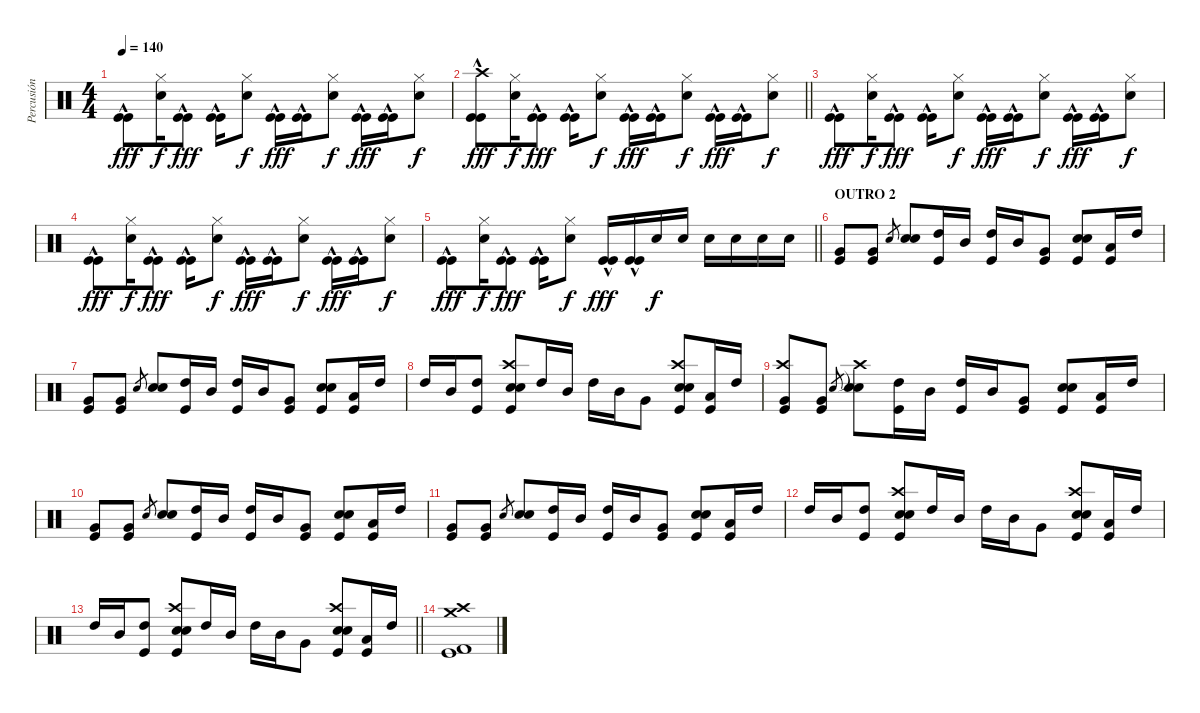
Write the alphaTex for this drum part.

\track ("Percusión" "Percusión") {instrument percussion}
\staff {score}
\articulation defaults
\ts (4 4)
\tempo 140
\clef neutral
\ks c
("Kick (hit)"{hac} "Kick (hit)").8{dy fff} ("Hi-Hat (closed)" "Snare (hit) 2").16{dy f} ("Kick (hit)"{hac} "Kick (hit)").8{dy fff} ("Kick (hit)" "Kick (hit)"{hac}).16 ("Hi-Hat (closed)" "Snare (hit) 2").8{dy f} ("Kick (hit)"{hac} "Kick (hit)").16{dy fff} ("Kick (hit)"{hac} "Kick (hit)").16 ("Hi-Hat (closed)" "Snare (hit) 2").8{dy f} ("Kick (hit)"{hac} "Kick (hit)").16{dy fff} ("Kick (hit)"{hac} "Kick (hit)").16 ("Hi-Hat (closed)" "Snare (hit) 2").8{dy f} |
\barLineRight lightlight
("Crash high (hit)" "Kick (hit)"{hac} "Kick (hit)").8{dy fff} ("Hi-Hat (closed)" "Snare (hit) 2").16{dy f} ("Kick (hit)"{hac} "Kick (hit)").8{dy fff} ("Kick (hit)" "Kick (hit)"{hac}).16 ("Hi-Hat (closed)" "Snare (hit) 2").8{dy f} ("Kick (hit)"{hac} "Kick (hit)").16{dy fff} ("Kick (hit)"{hac} "Kick (hit)").16 ("Hi-Hat (closed)" "Snare (hit) 2").8{dy f} ("Kick (hit)"{hac} "Kick (hit)").16{dy fff} ("Kick (hit)"{hac} "Kick (hit)").16 ("Hi-Hat (closed)" "Snare (hit) 2").8{dy f} |
("Kick (hit)"{hac} "Kick (hit)").8{dy fff} ("Hi-Hat (closed)" "Snare (hit) 2").16{dy f} ("Kick (hit)"{hac} "Kick (hit)").8{dy fff} ("Kick (hit)" "Kick (hit)"{hac}).16 ("Hi-Hat (closed)" "Snare (hit) 2").8{dy f} ("Kick (hit)"{hac} "Kick (hit)").16{dy fff} ("Kick (hit)"{hac} "Kick (hit)").16 ("Hi-Hat (closed)" "Snare (hit) 2").8{dy f} ("Kick (hit)"{hac} "Kick (hit)").16{dy fff} ("Kick (hit)"{hac} "Kick (hit)").16 ("Hi-Hat (closed)" "Snare (hit) 2").8{dy f} |
("Kick (hit)"{hac} "Kick (hit)").8{dy fff} ("Hi-Hat (closed)" "Snare (hit) 2").16{dy f} ("Kick (hit)"{hac} "Kick (hit)").8{dy fff} ("Kick (hit)" "Kick (hit)"{hac}).16 ("Hi-Hat (closed)" "Snare (hit) 2").8{dy f} ("Kick (hit)"{hac} "Kick (hit)").16{dy fff} ("Kick (hit)"{hac} "Kick (hit)").16 ("Hi-Hat (closed)" "Snare (hit) 2").8{dy f} ("Kick (hit)"{hac} "Kick (hit)").16{dy fff} ("Kick (hit)"{hac} "Kick (hit)").16 ("Hi-Hat (closed)" "Snare (hit) 2").8{dy f} |
\barLineRight lightlight
("Kick (hit)"{hac} "Kick (hit)").8{dy fff} ("Hi-Hat (closed)" "Snare (hit) 2").16{dy f} ("Kick (hit)"{hac} "Kick (hit)").8{dy fff} ("Kick (hit)" "Kick (hit)"{hac}).16 ("Hi-Hat (closed)" "Snare (hit) 2").8{dy f} ("Kick (hit)"{hac} "Kick (hit)").16{dy fff} ("Kick (hit)"{hac} "Kick (hit)").16 "Snare (hit) 2".16{dy f} "Snare (hit) 2".16 "Snare (hit) 2".16 "Snare (hit) 2".16 "Snare (hit) 2".16 "Snare (hit) 2".16 |
\section ("" "OUTRO 2")
("Very Low Tom (hit)" "Kick (hit)").8 ("Very Low Tom (hit)" "Kick (hit)").8 "Electric Snare (hit)".8{gr} ("Electric Snare (hit)" "Electric Snare (hit)").8 ("Kick (hit)" "High Tom (hit)").16 "Mid Tom (hit)".16 ("Kick (hit)" "High Tom (hit)").16 "Mid Tom (hit)".16 ("Very Low Tom (hit)" "Kick (hit)").8 ("Kick (hit)" "Electric Snare (hit)" "Electric Snare (hit)").8 ("Low Floor Tom (hit)" "Kick (hit)").16 "High Tom (hit)".16 |
("Very Low Tom (hit)" "Kick (hit)").8 ("Very Low Tom (hit)" "Kick (hit)").8 "Electric Snare (hit)".8{gr} ("Electric Snare (hit)" "Electric Snare (hit)").8 ("Kick (hit)" "High Tom (hit)").16 "Mid Tom (hit)".16 ("Kick (hit)" "High Tom (hit)").16 "Mid Tom (hit)".16 ("Very Low Tom (hit)" "Kick (hit)").8 ("Kick (hit)" "Electric Snare (hit)" "Electric Snare (hit)").8 ("Low Floor Tom (hit)" "Kick (hit)").16 "High Tom (hit)".16 |
"High Tom (hit)".16 "Mid Tom (hit)".16 ("High Tom (hit)" "Kick (hit)").8 ("Crash high (hit)" "Electric Snare (hit)" "Kick (hit)" "Electric Snare (hit)").8 "High Tom (hit)".16 "Mid Tom (hit)".16 "High Tom (hit)".16 "Mid Tom (hit)".16 "Very Low Tom (hit)".8 ("Crash high (hit)" "Electric Snare (hit)" "Kick (hit)" "Electric Snare (hit)").8 ("Low Floor Tom (hit)" "Kick (hit)").16 "High Tom (hit)".16 |
("Crash high (hit)" "Kick (hit)" "Very Low Tom (hit)").8 ("Very Low Tom (hit)" "Kick (hit)").8 "Electric Snare (hit)".8{gr} ("Crash high (hit)"{t} "Electric Snare (hit)" "Electric Snare (hit)").8 ("Kick (hit)" "High Tom (hit)").16 "Mid Tom (hit)".16 ("Kick (hit)" "High Tom (hit)").16 "Mid Tom (hit)".16 ("Very Low Tom (hit)" "Kick (hit)").8 ("Kick (hit)" "Electric Snare (hit)" "Electric Snare (hit)").8 ("Low Floor Tom (hit)" "Kick (hit)").16 "High Tom (hit)".16 |
("Very Low Tom (hit)" "Kick (hit)").8 ("Very Low Tom (hit)" "Kick (hit)").8 "Electric Snare (hit)".8{gr} ("Electric Snare (hit)" "Electric Snare (hit)").8 ("Kick (hit)" "High Tom (hit)").16 "Mid Tom (hit)".16 ("Kick (hit)" "High Tom (hit)").16 "Mid Tom (hit)".16 ("Very Low Tom (hit)" "Kick (hit)").8 ("Kick (hit)" "Electric Snare (hit)" "Electric Snare (hit)").8 ("Low Floor Tom (hit)" "Kick (hit)").16 "High Tom (hit)".16 |
("Very Low Tom (hit)" "Kick (hit)").8 ("Very Low Tom (hit)" "Kick (hit)").8 "Electric Snare (hit)".8{gr} ("Electric Snare (hit)" "Electric Snare (hit)").8 ("Kick (hit)" "High Tom (hit)").16 "Mid Tom (hit)".16 ("Kick (hit)" "High Tom (hit)").16 "Mid Tom (hit)".16 ("Very Low Tom (hit)" "Kick (hit)").8 ("Kick (hit)" "Electric Snare (hit)" "Electric Snare (hit)").8 ("Low Floor Tom (hit)" "Kick (hit)").16 "High Tom (hit)".16 |
"High Tom (hit)".16 "Mid Tom (hit)".16 ("High Tom (hit)" "Kick (hit)").8 ("Crash high (hit)" "Electric Snare (hit)" "Kick (hit)" "Electric Snare (hit)").8 "High Tom (hit)".16 "Mid Tom (hit)".16 "High Tom (hit)".16 "Mid Tom (hit)".16 "Very Low Tom (hit)".8 ("Crash high (hit)" "Electric Snare (hit)" "Kick (hit)" "Electric Snare (hit)").8 ("Low Floor Tom (hit)" "Kick (hit)").16 "High Tom (hit)".16 |
\barLineRight lightlight "High Tom (hit)".16 "Mid Tom (hit)".16
("High Tom (hit)" "Kick (hit)").8 ("Crash high (hit)" "Electric Snare (hit)" "Kick (hit)" "Electric Snare (hit)").8 "High Tom (hit)".16 "Mid Tom (hit)".16 "High Tom (hit)".16 "Mid Tom (hit)".16 "Very Low Tom (hit)".8 ("Crash high (hit)" "Electric Snare (hit)" "Kick (hit)" "Electric Snare (hit)").8 ("Low Floor Tom (hit)" "Kick (hit)").16 "High Tom (hit)".16 |
("Crash medium (hit)" "Crash high (hit)" "Kick (hit)" "Kick (hit) 2").1
